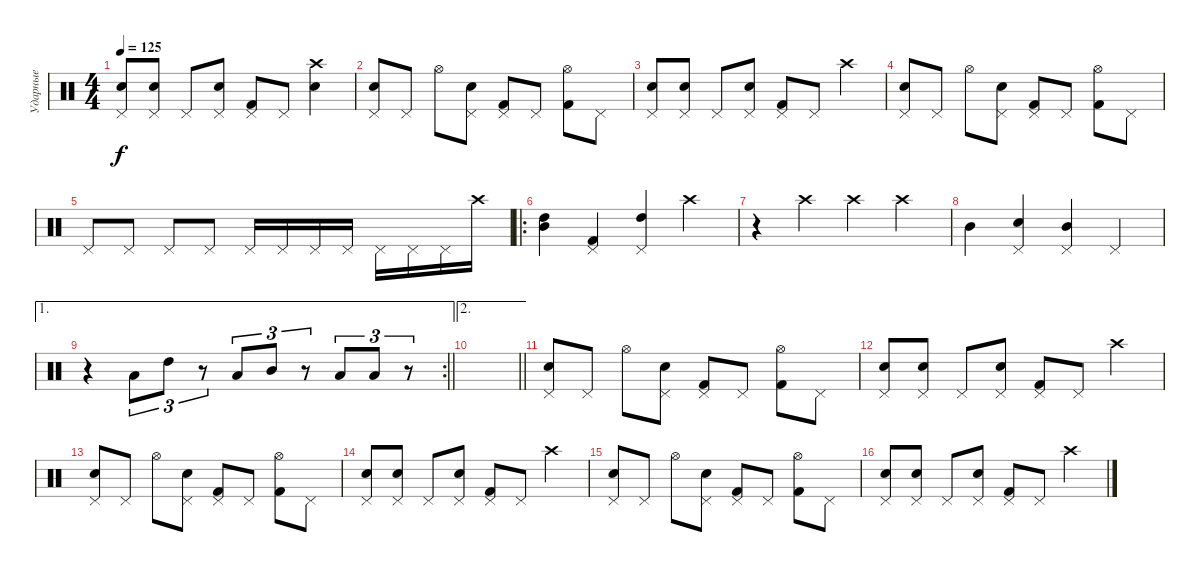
\track ("Ударные" "Ударные") {instrument percussion}
\staff {score}
\articulation defaults
\ts (4 4)
\tempo 125
\clef neutral
\ks c
("Pedal Hi-Hat (hit)" "Snare (hit) 2").8{dy f} ("Pedal Hi-Hat (hit)" "Snare (hit) 2").8 "Pedal Hi-Hat (hit)".8 ("Pedal Hi-Hat (hit)" "Snare (hit) 2").8 ("Pedal Hi-Hat (hit)" "Kick (hit) 2").8 "Pedal Hi-Hat (hit)".8 ("Crash high (hit)" "Snare (hit) 2").4 |
("Pedal Hi-Hat (hit)" "Snare (hit) 2").8 "Pedal Hi-Hat (hit)".8 "Hi-Hat (open)".8 ("Pedal Hi-Hat (hit)" "Snare (hit) 2").8 ("Pedal Hi-Hat (hit)" "Kick (hit) 2").8 "Pedal Hi-Hat (hit)".8 ("Hi-Hat (open)" "Kick (hit) 2").8 "Pedal Hi-Hat (hit)".8 |
("Pedal Hi-Hat (hit)" "Snare (hit) 2").8 ("Pedal Hi-Hat (hit)" "Snare (hit) 2").8 "Pedal Hi-Hat (hit)".8 ("Pedal Hi-Hat (hit)" "Snare (hit) 2").8 ("Pedal Hi-Hat (hit)" "Kick (hit) 2").8 "Pedal Hi-Hat (hit)".8 "Crash high (hit)".4 |
("Pedal Hi-Hat (hit)" "Snare (hit) 2").8 "Pedal Hi-Hat (hit)".8 "Hi-Hat (open)".8 ("Pedal Hi-Hat (hit)" "Snare (hit) 2").8 ("Pedal Hi-Hat (hit)" "Kick (hit) 2").8 "Pedal Hi-Hat (hit)".8 ("Hi-Hat (open)" "Kick (hit) 2").8 "Pedal Hi-Hat (hit)".8 |
"Pedal Hi-Hat (hit)".8 "Pedal Hi-Hat (hit)".8 "Pedal Hi-Hat (hit)".8 "Pedal Hi-Hat (hit)".8 "Pedal Hi-Hat (hit)".16 "Pedal Hi-Hat (hit)".16 "Pedal Hi-Hat (hit)".16 "Pedal Hi-Hat (hit)".16 "Pedal Hi-Hat (hit)".16 "Pedal Hi-Hat (hit)".16 "Pedal Hi-Hat (hit)".16 "Crash high (hit)".16 |
\ro
("High Tom (hit)" "Mid Tom (hit)").4 ("Pedal Hi-Hat (hit)" "Kick (hit) 2").4 ("Pedal Hi-Hat (hit)" "High Tom (hit)").4 "Crash high (hit)".4 |
r.4 "Crash high (hit)".4 "Crash high (hit)".4 "Crash high (hit)".4 |
"Mid Tom (hit)".4 ("Pedal Hi-Hat (hit)" "Snare (hit) 2").4 ("Pedal Hi-Hat (hit)" "Mid Tom (hit)").4 "Pedal Hi-Hat (hit)".4 |
\ae 1
\rc 2
\barLineRight lightlight
r.4 "Low Tom (hit)".8{tu (3 2)} "High Tom (hit)".8{tu (3 2)} r.8{tu (3 2)} "Low Tom (hit)".8{tu (3 2)} "Mid Tom (hit)".8{tu (3 2)} r.8{tu (3 2)} "Low Tom (hit)".8{tu (3 2)} "Low Tom (hit)".8{tu (3 2)} r.8{tu (3 2)} |
\ae 2
\barLineRight lightlight
|
("Pedal Hi-Hat (hit)" "Snare (hit) 2").8 "Pedal Hi-Hat (hit)".8 "Hi-Hat (open)".8 ("Pedal Hi-Hat (hit)" "Snare (hit) 2").8 ("Pedal Hi-Hat (hit)" "Kick (hit) 2").8 "Pedal Hi-Hat (hit)".8 ("Hi-Hat (open)" "Kick (hit) 2").8 "Pedal Hi-Hat (hit)".8 |
("Pedal Hi-Hat (hit)" "Snare (hit) 2").8 ("Pedal Hi-Hat (hit)" "Snare (hit) 2").8 "Pedal Hi-Hat (hit)".8 ("Pedal Hi-Hat (hit)" "Snare (hit) 2").8 ("Pedal Hi-Hat (hit)" "Kick (hit) 2").8 "Pedal Hi-Hat (hit)".8 "Crash high (hit)".4 |
("Pedal Hi-Hat (hit)" "Snare (hit) 2").8 "Pedal Hi-Hat (hit)".8 "Hi-Hat (open)".8 ("Pedal Hi-Hat (hit)" "Snare (hit) 2").8 ("Pedal Hi-Hat (hit)" "Kick (hit) 2").8 "Pedal Hi-Hat (hit)".8 ("Hi-Hat (open)" "Kick (hit) 2").8 "Pedal Hi-Hat (hit)".8 |
("Pedal Hi-Hat (hit)" "Snare (hit) 2").8 ("Pedal Hi-Hat (hit)" "Snare (hit) 2").8 "Pedal Hi-Hat (hit)".8 ("Pedal Hi-Hat (hit)" "Snare (hit) 2").8 ("Pedal Hi-Hat (hit)" "Kick (hit) 2").8 "Pedal Hi-Hat (hit)".8 "Crash high (hit)".4 |
("Pedal Hi-Hat (hit)" "Snare (hit) 2").8 "Pedal Hi-Hat (hit)".8 "Hi-Hat (open)".8 ("Pedal Hi-Hat (hit)" "Snare (hit) 2").8 ("Pedal Hi-Hat (hit)" "Kick (hit) 2").8 "Pedal Hi-Hat (hit)".8 ("Hi-Hat (open)" "Kick (hit) 2").8 "Pedal Hi-Hat (hit)".8 |
("Pedal Hi-Hat (hit)" "Snare (hit) 2").8 ("Pedal Hi-Hat (hit)" "Snare (hit) 2").8 "Pedal Hi-Hat (hit)".8 ("Pedal Hi-Hat (hit)" "Snare (hit) 2").8 ("Pedal Hi-Hat (hit)" "Kick (hit) 2").8 "Pedal Hi-Hat (hit)".8 "Crash high (hit)".4
